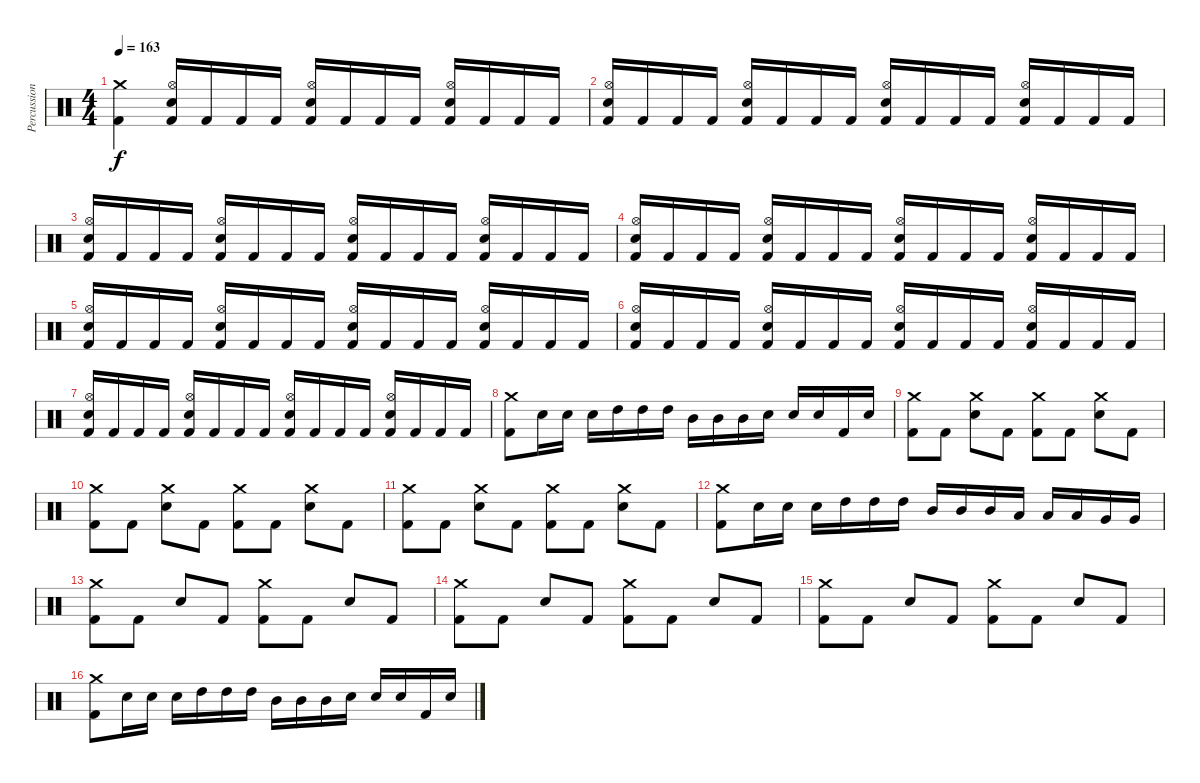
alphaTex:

\track ("Percussion" "Percussion") {instrument percussion}
\staff {score}
\articulation defaults
\ts (4 4)
\tempo 163
\clef neutral
\ks c
("Crash medium (hit)" "Kick (hit) 2").4{dy f} ("Hi-Hat (open)" "Electric Snare (hit)" "Kick (hit) 2").16 "Kick (hit) 2".16 "Kick (hit) 2".16 "Kick (hit) 2".16 ("Hi-Hat (open)" "Electric Snare (hit)" "Kick (hit) 2").16 "Kick (hit) 2".16 "Kick (hit) 2".16 "Kick (hit) 2".16 ("Hi-Hat (open)" "Electric Snare (hit)" "Kick (hit) 2").16 "Kick (hit) 2".16 "Kick (hit) 2".16 "Kick (hit) 2".16 |
("Hi-Hat (open)" "Electric Snare (hit)" "Kick (hit) 2").16 "Kick (hit) 2".16 "Kick (hit) 2".16 "Kick (hit) 2".16 ("Hi-Hat (open)" "Electric Snare (hit)" "Kick (hit) 2").16 "Kick (hit) 2".16 "Kick (hit) 2".16 "Kick (hit) 2".16 ("Hi-Hat (open)" "Electric Snare (hit)" "Kick (hit) 2").16 "Kick (hit) 2".16 "Kick (hit) 2".16 "Kick (hit) 2".16 ("Hi-Hat (open)" "Electric Snare (hit)" "Kick (hit) 2").16 "Kick (hit) 2".16 "Kick (hit) 2".16 "Kick (hit) 2".16 |
("Hi-Hat (open)" "Electric Snare (hit)" "Kick (hit) 2").16 "Kick (hit) 2".16 "Kick (hit) 2".16 "Kick (hit) 2".16 ("Hi-Hat (open)" "Electric Snare (hit)" "Kick (hit) 2").16 "Kick (hit) 2".16 "Kick (hit) 2".16 "Kick (hit) 2".16 ("Hi-Hat (open)" "Electric Snare (hit)" "Kick (hit) 2").16 "Kick (hit) 2".16 "Kick (hit) 2".16 "Kick (hit) 2".16 ("Hi-Hat (open)" "Electric Snare (hit)" "Kick (hit) 2").16 "Kick (hit) 2".16 "Kick (hit) 2".16 "Kick (hit) 2".16 |
("Hi-Hat (open)" "Electric Snare (hit)" "Kick (hit) 2").16 "Kick (hit) 2".16 "Kick (hit) 2".16 "Kick (hit) 2".16 ("Hi-Hat (open)" "Electric Snare (hit)" "Kick (hit) 2").16 "Kick (hit) 2".16 "Kick (hit) 2".16 "Kick (hit) 2".16 ("Hi-Hat (open)" "Electric Snare (hit)" "Kick (hit) 2").16 "Kick (hit) 2".16 "Kick (hit) 2".16 "Kick (hit) 2".16 ("Hi-Hat (open)" "Electric Snare (hit)" "Kick (hit) 2").16 "Kick (hit) 2".16 "Kick (hit) 2".16 "Kick (hit) 2".16 |
("Hi-Hat (open)" "Electric Snare (hit)" "Kick (hit) 2").16 "Kick (hit) 2".16 "Kick (hit) 2".16 "Kick (hit) 2".16 ("Hi-Hat (open)" "Electric Snare (hit)" "Kick (hit) 2").16 "Kick (hit) 2".16 "Kick (hit) 2".16 "Kick (hit) 2".16 ("Hi-Hat (open)" "Electric Snare (hit)" "Kick (hit) 2").16 "Kick (hit) 2".16 "Kick (hit) 2".16 "Kick (hit) 2".16 ("Hi-Hat (open)" "Electric Snare (hit)" "Kick (hit) 2").16 "Kick (hit) 2".16 "Kick (hit) 2".16 "Kick (hit) 2".16 |
("Hi-Hat (open)" "Electric Snare (hit)" "Kick (hit) 2").16 "Kick (hit) 2".16 "Kick (hit) 2".16 "Kick (hit) 2".16 ("Hi-Hat (open)" "Electric Snare (hit)" "Kick (hit) 2").16 "Kick (hit) 2".16 "Kick (hit) 2".16 "Kick (hit) 2".16 ("Hi-Hat (open)" "Electric Snare (hit)" "Kick (hit) 2").16 "Kick (hit) 2".16 "Kick (hit) 2".16 "Kick (hit) 2".16 ("Hi-Hat (open)" "Electric Snare (hit)" "Kick (hit) 2").16 "Kick (hit) 2".16 "Kick (hit) 2".16 "Kick (hit) 2".16 |
("Hi-Hat (open)" "Electric Snare (hit)" "Kick (hit) 2").16 "Kick (hit) 2".16 "Kick (hit) 2".16 "Kick (hit) 2".16 ("Hi-Hat (open)" "Electric Snare (hit)" "Kick (hit) 2").16 "Kick (hit) 2".16 "Kick (hit) 2".16 "Kick (hit) 2".16 ("Hi-Hat (open)" "Electric Snare (hit)" "Kick (hit) 2").16 "Kick (hit) 2".16 "Kick (hit) 2".16 "Kick (hit) 2".16 ("Hi-Hat (open)" "Electric Snare (hit)" "Kick (hit) 2").16 "Kick (hit) 2".16 "Kick (hit) 2".16 "Kick (hit) 2".16 |
("Crash medium (hit)" "Kick (hit) 2").8 "Electric Snare (hit)".16 "Electric Snare (hit)".16 "Electric Snare (hit)".16 "High Tom (hit)".16 "High Tom (hit)".16 "High Tom (hit)".16 "Mid Tom (hit)".16 "Mid Tom (hit)".16 "Mid Tom (hit)".16 "Electric Snare (hit)".16 "Electric Snare (hit)".16 "Electric Snare (hit)".16 "Kick (hit) 2".16 "Electric Snare (hit)".16 |
("Crash medium (hit)" "Kick (hit) 2").8 "Kick (hit) 2".8 ("Crash medium (hit)" "Electric Snare (hit)").8 "Kick (hit) 2".8 ("Crash medium (hit)" "Kick (hit) 2").8 "Kick (hit) 2".8 ("Crash medium (hit)" "Electric Snare (hit)").8 "Kick (hit) 2".8 |
("Crash medium (hit)" "Kick (hit) 2").8 "Kick (hit) 2".8 ("Crash medium (hit)" "Electric Snare (hit)").8 "Kick (hit) 2".8 ("Crash medium (hit)" "Kick (hit) 2").8 "Kick (hit) 2".8 ("Crash medium (hit)" "Electric Snare (hit)").8 "Kick (hit) 2".8 |
("Crash medium (hit)" "Kick (hit) 2").8 "Kick (hit) 2".8 ("Crash medium (hit)" "Electric Snare (hit)").8 "Kick (hit) 2".8 ("Crash medium (hit)" "Kick (hit) 2").8 "Kick (hit) 2".8 ("Crash medium (hit)" "Electric Snare (hit)").8 "Kick (hit) 2".8 |
("Crash medium (hit)" "Kick (hit) 2").8 "Electric Snare (hit)".16 "Electric Snare (hit)".16 "Electric Snare (hit)".16 "High Tom (hit)".16 "High Tom (hit)".16 "High Tom (hit)".16 "Mid Tom (hit)".16 "Mid Tom (hit)".16 "Mid Tom (hit)".16 "Low Tom (hit)".16 "Low Tom (hit)".16 "Low Tom (hit)".16 "Very Low Tom (hit)".16 "Very Low Tom (hit)".16 |
("Crash medium (hit)" "Kick (hit) 2").8 "Kick (hit) 2".8 "Electric Snare (hit)".8 "Kick (hit) 2".8 ("Crash medium (hit)" "Kick (hit) 2").8 "Kick (hit) 2".8 "Electric Snare (hit)".8 "Kick (hit) 2".8 |
("Crash medium (hit)" "Kick (hit) 2").8 "Kick (hit) 2".8 "Electric Snare (hit)".8 "Kick (hit) 2".8 ("Crash medium (hit)" "Kick (hit) 2").8 "Kick (hit) 2".8 "Electric Snare (hit)".8 "Kick (hit) 2".8 |
("Crash medium (hit)" "Kick (hit) 2").8 "Kick (hit) 2".8 "Electric Snare (hit)".8 "Kick (hit) 2".8 ("Crash medium (hit)" "Kick (hit) 2").8 "Kick (hit) 2".8 "Electric Snare (hit)".8 "Kick (hit) 2".8 |
("Crash medium (hit)" "Kick (hit) 2").8 "Electric Snare (hit)".16 "Electric Snare (hit)".16 "Electric Snare (hit)".16 "High Tom (hit)".16 "High Tom (hit)".16 "High Tom (hit)".16 "Mid Tom (hit)".16 "Mid Tom (hit)".16 "Mid Tom (hit)".16 "Electric Snare (hit)".16 "Electric Snare (hit)".16 "Electric Snare (hit)".16 "Kick (hit) 2".16 "Electric Snare (hit)".16
